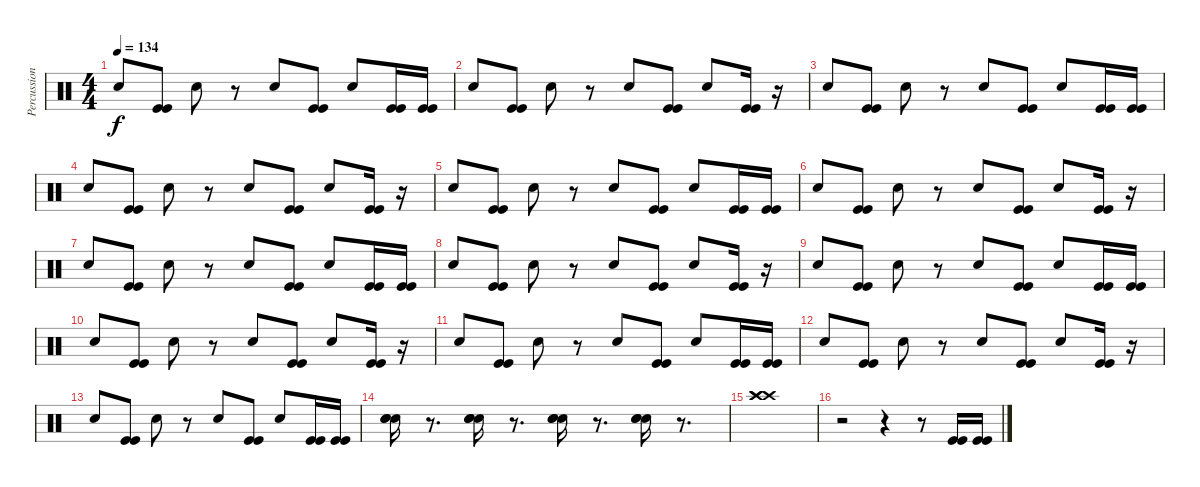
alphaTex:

\track ("Percussion (Rico)" "Percussion") {instrument percussion}
\staff {score}
\articulation defaults
\ts (4 4)
\tempo 134
\clef neutral
\ks c "Electric Snare (hit)".8{dy f}
("Kick (hit)" "Kick (hit)").8 "Electric Snare (hit)".8 r.8 "Electric Snare (hit)".8 ("Kick (hit)" "Kick (hit)").8 "Electric Snare (hit)".8 ("Kick (hit)" "Kick (hit)").16 ("Kick (hit)" "Kick (hit)").16 |
"Electric Snare (hit)".8 ("Kick (hit)" "Kick (hit)").8 "Electric Snare (hit)".8 r.8 "Electric Snare (hit)".8 ("Kick (hit)" "Kick (hit)").8 "Electric Snare (hit)".8 ("Kick (hit)" "Kick (hit)").16 r.16 |
"Electric Snare (hit)".8 ("Kick (hit)" "Kick (hit)").8 "Electric Snare (hit)".8 r.8 "Electric Snare (hit)".8 ("Kick (hit)" "Kick (hit)").8 "Electric Snare (hit)".8 ("Kick (hit)" "Kick (hit)").16 ("Kick (hit)" "Kick (hit)").16 |
"Electric Snare (hit)".8 ("Kick (hit)" "Kick (hit)").8 "Electric Snare (hit)".8 r.8 "Electric Snare (hit)".8 ("Kick (hit)" "Kick (hit)").8 "Electric Snare (hit)".8 ("Kick (hit)" "Kick (hit)").16 r.16 |
"Electric Snare (hit)".8 ("Kick (hit)" "Kick (hit)").8 "Electric Snare (hit)".8 r.8 "Electric Snare (hit)".8 ("Kick (hit)" "Kick (hit)").8 "Electric Snare (hit)".8 ("Kick (hit)" "Kick (hit)").16 ("Kick (hit)" "Kick (hit)").16 |
"Electric Snare (hit)".8 ("Kick (hit)" "Kick (hit)").8 "Electric Snare (hit)".8 r.8 "Electric Snare (hit)".8 ("Kick (hit)" "Kick (hit)").8 "Electric Snare (hit)".8 ("Kick (hit)" "Kick (hit)").16 r.16 |
"Electric Snare (hit)".8 ("Kick (hit)" "Kick (hit)").8 "Electric Snare (hit)".8 r.8 "Electric Snare (hit)".8 ("Kick (hit)" "Kick (hit)").8 "Electric Snare (hit)".8 ("Kick (hit)" "Kick (hit)").16 ("Kick (hit)" "Kick (hit)").16 |
"Electric Snare (hit)".8 ("Kick (hit)" "Kick (hit)").8 "Electric Snare (hit)".8 r.8 "Electric Snare (hit)".8 ("Kick (hit)" "Kick (hit)").8 "Electric Snare (hit)".8 ("Kick (hit)" "Kick (hit)").16 r.16 |
"Electric Snare (hit)".8 ("Kick (hit)" "Kick (hit)").8 "Electric Snare (hit)".8 r.8 "Electric Snare (hit)".8 ("Kick (hit)" "Kick (hit)").8 "Electric Snare (hit)".8 ("Kick (hit)" "Kick (hit)").16 ("Kick (hit)" "Kick (hit)").16 |
"Electric Snare (hit)".8 ("Kick (hit)" "Kick (hit)").8 "Electric Snare (hit)".8 r.8 "Electric Snare (hit)".8 ("Kick (hit)" "Kick (hit)").8 "Electric Snare (hit)".8 ("Kick (hit)" "Kick (hit)").16 r.16 |
"Electric Snare (hit)".8 ("Kick (hit)" "Kick (hit)").8 "Electric Snare (hit)".8 r.8 "Electric Snare (hit)".8 ("Kick (hit)" "Kick (hit)").8 "Electric Snare (hit)".8 ("Kick (hit)" "Kick (hit)").16 ("Kick (hit)" "Kick (hit)").16 |
"Electric Snare (hit)".8 ("Kick (hit)" "Kick (hit)").8 "Electric Snare (hit)".8 r.8 "Electric Snare (hit)".8 ("Kick (hit)" "Kick (hit)").8 "Electric Snare (hit)".8 ("Kick (hit)" "Kick (hit)").16 r.16 |
"Electric Snare (hit)".8 ("Kick (hit)" "Kick (hit)").8 "Electric Snare (hit)".8 r.8 "Electric Snare (hit)".8 ("Kick (hit)" "Kick (hit)").8 "Electric Snare (hit)".8 ("Kick (hit)" "Kick (hit)").16 ("Kick (hit)" "Kick (hit)").16 |
("Electric Snare (hit)" "Electric Snare (hit)" "Electric Snare (hit)").16 r.8{d} ("Electric Snare (hit)" "Electric Snare (hit)" "Electric Snare (hit)").16 r.8{d} ("Electric Snare (hit)" "Electric Snare (hit)" "Electric Snare (hit)").16 r.8{d} ("Electric Snare (hit)" "Electric Snare (hit)" "Electric Snare (hit)").16 r.8{d} |
("Crash high (hit)" "Crash high (hit)" "Crash high (hit)").1 |
r.2 r.4 r.8 ("Kick (hit)" "Kick (hit)").16 ("Kick (hit)" "Kick (hit)").16
